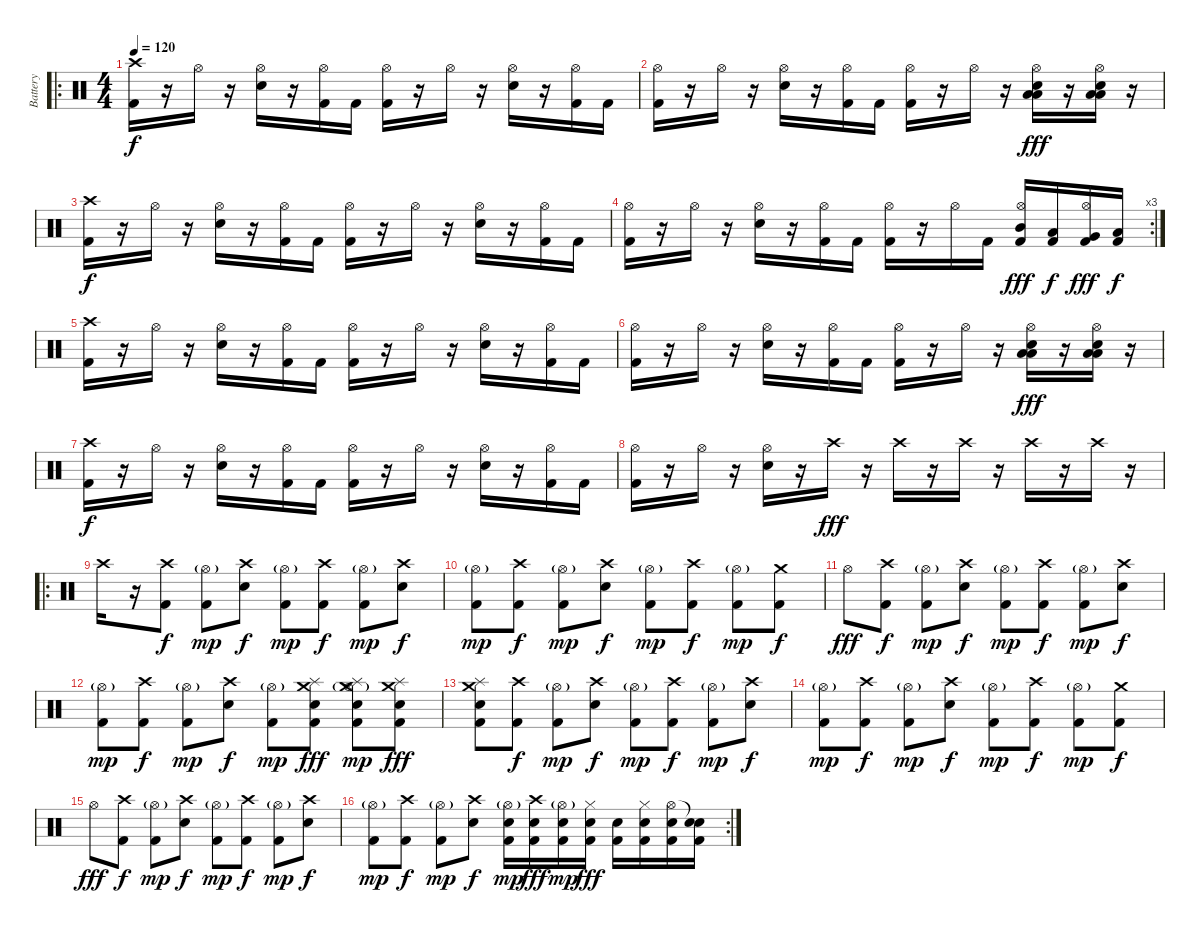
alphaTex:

\track ("Battery" "Battery") {instrument percussion}
\staff {score}
\articulation defaults
\ro
\ts (4 4)
\tempo 120
\clef neutral
\ks c
("Crash high (hit)" "Kick (hit) 2").16{dy f} r.16 "Hi-Hat (open)".16 r.16 ("Hi-Hat (open)" "Electric Snare (hit)").16 r.16 ("Hi-Hat (open)" "Kick (hit) 2").16 "Kick (hit) 2".16 ("Hi-Hat (open)" "Kick (hit) 2").16 r.16 "Hi-Hat (open)".16 r.16 ("Hi-Hat (open)" "Electric Snare (hit)").16 r.16 ("Hi-Hat (open)" "Kick (hit) 2").16 "Kick (hit) 2".16 |
("Hi-Hat (open)" "Kick (hit) 2").16 r.16 "Hi-Hat (open)".16 r.16 ("Hi-Hat (open)" "Electric Snare (hit)").16 r.16 ("Hi-Hat (open)" "Kick (hit) 2").16 "Kick (hit) 2".16 ("Hi-Hat (open)" "Kick (hit) 2").16 r.16 "Hi-Hat (open)".16 r.16 ("Hi-Hat (open)" "Low Tom (hit)" "Low Floor Tom (hit)" "Electric Snare (hit)").16{dy fff} r.16 ("Hi-Hat (open)" "Low Tom (hit)" "Low Floor Tom (hit)" "Electric Snare (hit)").16 r.16 |
("Crash high (hit)" "Kick (hit) 2").16{dy f} r.16 "Hi-Hat (open)".16 r.16 ("Hi-Hat (open)" "Electric Snare (hit)").16 r.16 ("Hi-Hat (open)" "Kick (hit) 2").16 "Kick (hit) 2".16 ("Hi-Hat (open)" "Kick (hit) 2").16 r.16 "Hi-Hat (open)".16 r.16 ("Hi-Hat (open)" "Electric Snare (hit)").16 r.16 ("Hi-Hat (open)" "Kick (hit) 2").16 "Kick (hit) 2".16 |
\rc 3
("Hi-Hat (open)" "Kick (hit) 2").16 r.16 "Hi-Hat (open)".16 r.16 ("Hi-Hat (open)" "Electric Snare (hit)").16 r.16 ("Hi-Hat (open)" "Kick (hit) 2").16 "Kick (hit) 2".16 ("Hi-Hat (open)" "Kick (hit) 2").16 r.16 "Hi-Hat (open)".16 "Kick (hit) 2".16 ("Hi-Hat (open)" "Mid Tom (hit)" "Kick (hit) 2").16{dy fff} ("Low Tom (hit)" "Kick (hit) 2").16{dy f} ("Hi-Hat (open)" "Very Low Tom (hit)" "Kick (hit) 2").16{dy fff} ("Low Floor Tom (hit)" "Kick (hit) 2").16{dy f} |
("Crash high (hit)" "Kick (hit) 2").16 r.16 "Hi-Hat (open)".16 r.16 ("Hi-Hat (open)" "Electric Snare (hit)").16 r.16 ("Hi-Hat (open)" "Kick (hit) 2").16 "Kick (hit) 2".16 ("Hi-Hat (open)" "Kick (hit) 2").16 r.16 "Hi-Hat (open)".16 r.16 ("Hi-Hat (open)" "Electric Snare (hit)").16 r.16 ("Hi-Hat (open)" "Kick (hit) 2").16 "Kick (hit) 2".16 |
("Hi-Hat (open)" "Kick (hit) 2").16 r.16 "Hi-Hat (open)".16 r.16 ("Hi-Hat (open)" "Electric Snare (hit)").16 r.16 ("Hi-Hat (open)" "Kick (hit) 2").16 "Kick (hit) 2".16 ("Hi-Hat (open)" "Kick (hit) 2").16 r.16 "Hi-Hat (open)".16 r.16 ("Hi-Hat (open)" "Low Tom (hit)" "Low Floor Tom (hit)" "Electric Snare (hit)").16{dy fff} r.16 ("Hi-Hat (open)" "Low Tom (hit)" "Low Floor Tom (hit)" "Electric Snare (hit)").16 r.16 |
("Crash high (hit)" "Kick (hit) 2").16{dy f} r.16 "Hi-Hat (open)".16 r.16 ("Hi-Hat (open)" "Electric Snare (hit)").16 r.16 ("Hi-Hat (open)" "Kick (hit) 2").16 "Kick (hit) 2".16 ("Hi-Hat (open)" "Kick (hit) 2").16 r.16 "Hi-Hat (open)".16 r.16 ("Hi-Hat (open)" "Electric Snare (hit)").16 r.16 ("Hi-Hat (open)" "Kick (hit) 2").16 "Kick (hit) 2".16 |
("Hi-Hat (open)" "Kick (hit) 2").16 r.16 "Hi-Hat (open)".16 r.16 ("Hi-Hat (open)" "Electric Snare (hit)").16 r.16 "Crash high (hit)".16{dy fff} r.16 "Crash high (hit)".16 r.16 "Crash high (hit)".16 r.16 "Crash high (hit)".16 r.16 "Crash high (hit)".16 r.16 |
\ro "Crash high (hit)".16
r.16 ("Crash high (hit)" "Kick (hit) 2").8{dy f} ("Hi-Hat (open)"{g} "Kick (hit) 2").8{dy mp} ("Crash high (hit)" "Snare (hit) 2").8{dy f} ("Hi-Hat (open)"{g} "Kick (hit) 2").8{dy mp} ("Crash high (hit)" "Kick (hit) 2").8{dy f} ("Hi-Hat (open)"{g} "Kick (hit) 2").8{dy mp} ("Crash high (hit)" "Snare (hit) 2").8{dy f} |
("Hi-Hat (open)"{g} "Kick (hit) 2").8{dy mp} ("Crash high (hit)" "Kick (hit) 2").8{dy f} ("Hi-Hat (open)"{g} "Kick (hit) 2").8{dy mp} ("Crash high (hit)" "Snare (hit) 2").8{dy f} ("Hi-Hat (open)"{g} "Kick (hit) 2").8{dy mp} ("Crash high (hit)" "Kick (hit) 2").8{dy f} ("Hi-Hat (open)"{g} "Kick (hit) 2").8{dy mp} ("Crash medium (hit)" "Kick (hit) 2").8{dy f} |
"Hi-Hat (open)".8{dy fff} ("Crash high (hit)" "Kick (hit) 2").8{dy f} ("Hi-Hat (open)"{g} "Kick (hit) 2").8{dy mp} ("Crash high (hit)" "Snare (hit) 2").8{dy f} ("Hi-Hat (open)"{g} "Kick (hit) 2").8{dy mp} ("Crash high (hit)" "Kick (hit) 2").8{dy f} ("Hi-Hat (open)"{g} "Kick (hit) 2").8{dy mp} ("Crash high (hit)" "Snare (hit) 2").8{dy f} |
("Hi-Hat (open)"{g} "Kick (hit) 2").8{dy mp} ("Crash high (hit)" "Kick (hit) 2").8{dy f} ("Hi-Hat (open)"{g} "Kick (hit) 2").8{dy mp} ("Crash high (hit)" "Snare (hit) 2").8{dy f} ("Hi-Hat (open)"{g} "Kick (hit) 2").8{dy mp} ("Splash (hit)" "Crash medium (hit)" "Kick (hit) 2" "Electric Snare (hit)").8{dy fff} ("Splash (hit)" "Crash medium (hit)" "Kick (hit) 2" "Hi-Hat (open)"{g} "Electric Snare (hit)").8{dy mp} ("Splash (hit)" "Crash medium (hit)" "Kick (hit) 2" "Electric Snare (hit)").8{dy fff} |
("Splash (hit)" "Crash medium (hit)" "Kick (hit) 2" "Electric Snare (hit)").8 ("Crash high (hit)" "Kick (hit) 2").8{dy f} ("Hi-Hat (open)"{g} "Kick (hit) 2").8{dy mp} ("Crash high (hit)" "Snare (hit) 2").8{dy f} ("Hi-Hat (open)"{g} "Kick (hit) 2").8{dy mp} ("Crash high (hit)" "Kick (hit) 2").8{dy f} ("Hi-Hat (open)"{g} "Kick (hit) 2").8{dy mp} ("Crash high (hit)" "Snare (hit) 2").8{dy f} |
("Hi-Hat (open)"{g} "Kick (hit) 2").8{dy mp} ("Crash high (hit)" "Kick (hit) 2").8{dy f} ("Hi-Hat (open)"{g} "Kick (hit) 2").8{dy mp} ("Crash high (hit)" "Snare (hit) 2").8{dy f} ("Hi-Hat (open)"{g} "Kick (hit) 2").8{dy mp} ("Crash high (hit)" "Kick (hit) 2").8{dy f} ("Hi-Hat (open)"{g} "Kick (hit) 2").8{dy mp} ("Crash medium (hit)" "Kick (hit) 2").8{dy f} |
"Hi-Hat (open)".8{dy fff} ("Crash high (hit)" "Kick (hit) 2").8{dy f} ("Hi-Hat (open)"{g} "Kick (hit) 2").8{dy mp} ("Crash high (hit)" "Snare (hit) 2").8{dy f} ("Hi-Hat (open)"{g} "Kick (hit) 2").8{dy mp} ("Crash high (hit)" "Kick (hit) 2").8{dy f} ("Hi-Hat (open)"{g} "Kick (hit) 2").8{dy mp} ("Crash high (hit)" "Snare (hit) 2").8{dy f} |
\rc 2
("Hi-Hat (open)"{g} "Kick (hit) 2").8{dy mp} ("Crash high (hit)" "Kick (hit) 2").8{dy f} ("Hi-Hat (open)"{g} "Kick (hit) 2").8{dy mp} ("Crash high (hit)" "Snare (hit) 2").8{dy f} ("Electric Snare (hit)" "Hi-Hat (open)"{g} "Kick (hit) 2").16{dy mp} ("Crash high (hit)" "Electric Snare (hit)" "Kick (hit) 2").16{dy fff} ("Electric Snare (hit)" "Hi-Hat (open)"{g} "Kick (hit) 2").16{dy mp} ("Hi-Hat (closed)" "Electric Snare (hit)" "Kick (hit) 2").16{dy fff} ("Electric Snare (hit)" "Kick (hit) 2").16 ("Hi-Hat (closed)" "Electric Snare (hit)" "Kick (hit) 2").16 ("Hi-Hat (open)" "Electric Snare (hit)" "Kick (hit) 2").16 ("Snare (hit)"{t} "Electric Snare (hit)" "Kick (hit) 2").16
